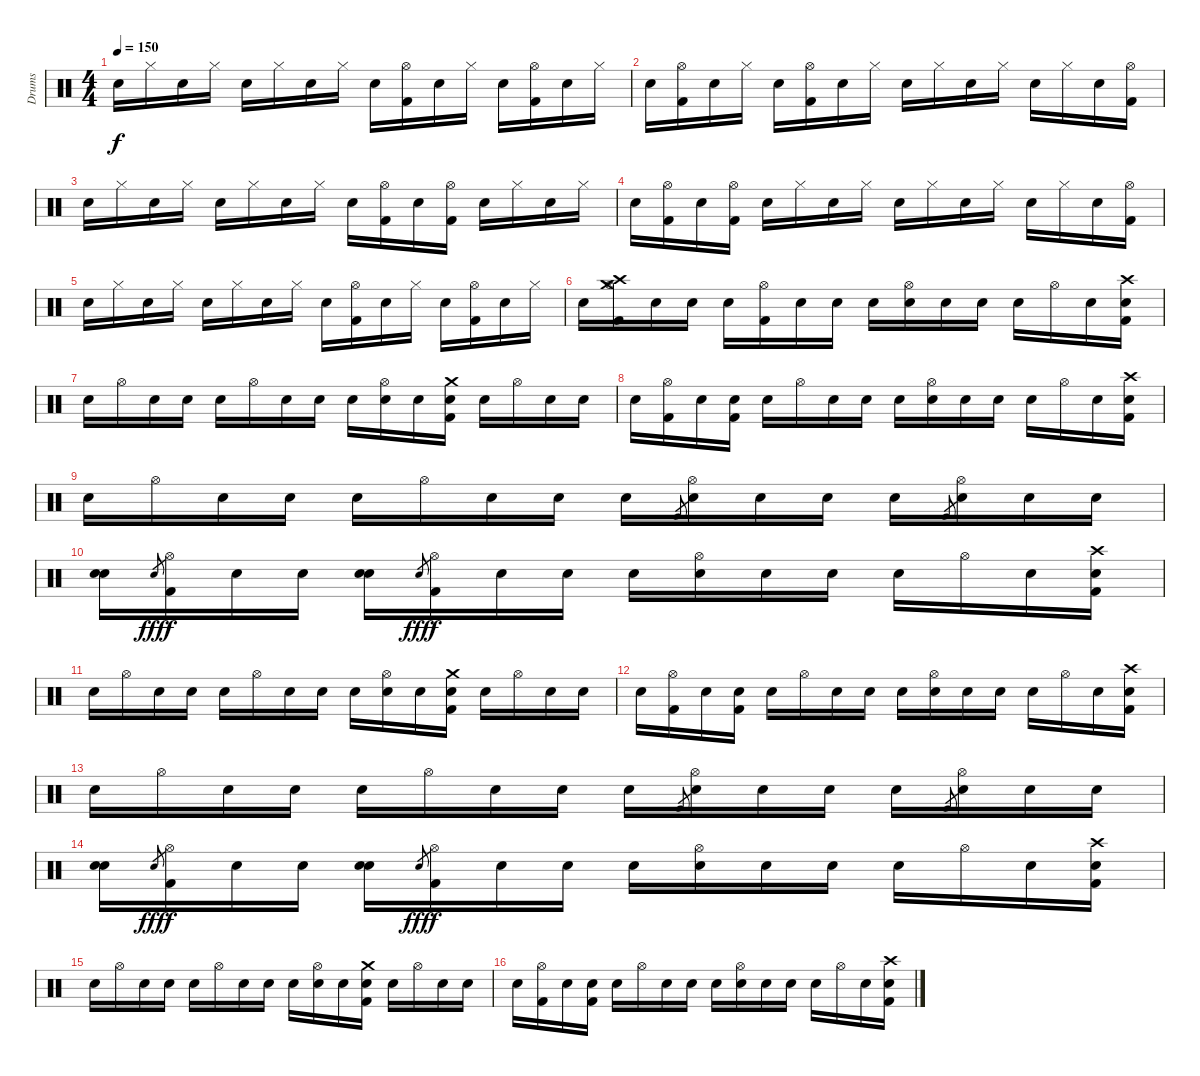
\track ("Drums" "Drums") {instrument percussion}
\staff {score}
\articulation defaults
\ts (4 4)
\tempo 150
\clef neutral
\ks c "Snare (hit)".16{dy f} "Hi-Hat (closed)".16 "Snare (hit)".16 "Hi-Hat (closed)".16 "Snare (hit)".16 "Hi-Hat (closed)".16 "Snare (hit)".16 "Hi-Hat (closed)".16 "Snare (hit)".16
("Hi-Hat (open)" "Kick (hit) 2").16 "Snare (hit)".16 "Hi-Hat (closed)".16 "Snare (hit)".16 ("Hi-Hat (open)" "Kick (hit) 2").16 "Snare (hit)".16 "Hi-Hat (closed)".16 |
"Snare (hit)".16 ("Hi-Hat (open)" "Kick (hit) 2").16 "Snare (hit)".16 "Hi-Hat (closed)".16 "Snare (hit)".16 ("Hi-Hat (open)" "Kick (hit) 2").16 "Snare (hit)".16 "Hi-Hat (closed)".16 "Snare (hit)".16 "Hi-Hat (closed)".16 "Snare (hit)".16 "Hi-Hat (closed)".16 "Snare (hit)".16 "Hi-Hat (closed)".16 "Snare (hit)".16 ("Hi-Hat (open)" "Kick (hit) 2").16 |
"Snare (hit)".16 "Hi-Hat (closed)".16 "Snare (hit)".16 "Hi-Hat (closed)".16 "Snare (hit)".16 "Hi-Hat (closed)".16 "Snare (hit)".16 "Hi-Hat (closed)".16 "Snare (hit)".16 ("Hi-Hat (open)" "Kick (hit) 2").16 "Snare (hit)".16 ("Hi-Hat (open)" "Kick (hit) 2").16 "Snare (hit)".16 "Hi-Hat (closed)".16 "Snare (hit)".16 "Hi-Hat (closed)".16 |
"Snare (hit)".16 ("Hi-Hat (open)" "Kick (hit) 2").16 "Snare (hit)".16 ("Hi-Hat (open)" "Kick (hit) 2").16 "Snare (hit)".16 "Hi-Hat (closed)".16 "Snare (hit)".16 "Hi-Hat (closed)".16 "Snare (hit)".16 "Hi-Hat (closed)".16 "Snare (hit)".16 "Hi-Hat (closed)".16 "Snare (hit)".16 "Hi-Hat (closed)".16 "Snare (hit)".16 ("Hi-Hat (open)" "Kick (hit) 2").16 |
"Snare (hit)".16 "Hi-Hat (closed)".16 "Snare (hit)".16 "Hi-Hat (closed)".16 "Snare (hit)".16 "Hi-Hat (closed)".16 "Snare (hit)".16 "Hi-Hat (closed)".16 "Snare (hit)".16 ("Hi-Hat (open)" "Kick (hit) 2").16 "Snare (hit)".16 "Hi-Hat (closed)".16 "Snare (hit)".16 ("Hi-Hat (open)" "Kick (hit) 2").16 "Snare (hit)".16 "Hi-Hat (closed)".16 |
"Snare (hit)".16 ("Hi-Hat (open)" "Crash medium (hit)" "Crash high (hit)" "Kick (hit) 2").16 "Snare (hit)".16 "Snare (hit)".16 "Snare (hit)".16 ("Hi-Hat (open)" "Kick (hit) 2").16 "Snare (hit)".16 "Snare (hit)".16 "Snare (hit)".16 ("Hi-Hat (open)" "Electric Snare (hit)").16 "Snare (hit)".16 "Snare (hit)".16 "Snare (hit)".16 "Hi-Hat (open)".16 "Snare (hit)".16 ("Snare (hit)" "Crash high (hit)" "Kick (hit) 2").16 |
"Snare (hit)".16 "Hi-Hat (open)".16 "Snare (hit)".16 "Snare (hit)".16 "Snare (hit)".16 "Hi-Hat (open)".16 "Snare (hit)".16 "Snare (hit)".16 "Snare (hit)".16 ("Hi-Hat (open)" "Electric Snare (hit)").16 "Snare (hit)".16 ("Snare (hit)" "Crash medium (hit)" "Kick (hit) 2").16 "Snare (hit)".16 "Hi-Hat (open)".16 "Snare (hit)".16 "Snare (hit)".16 |
"Snare (hit)".16 ("Hi-Hat (open)" "Kick (hit) 2").16 "Snare (hit)".16 ("Snare (hit)" "Kick (hit) 2").16 "Snare (hit)".16 "Hi-Hat (open)".16 "Snare (hit)".16 "Snare (hit)".16 "Snare (hit)".16 ("Hi-Hat (open)" "Electric Snare (hit)").16 "Snare (hit)".16 "Snare (hit)".16 "Snare (hit)".16 "Hi-Hat (open)".16 "Snare (hit)".16 ("Snare (hit)" "Crash high (hit)" "Kick (hit) 2").16 |
"Snare (hit)".16 "Hi-Hat (open)".16 "Snare (hit)".16 "Snare (hit)".16 "Snare (hit)".16 "Hi-Hat (open)".16 "Snare (hit)".16 "Snare (hit)".16 "Snare (hit)".16 "Kick (hit) 2".8{gr} ("Hi-Hat (open)" "Electric Snare (hit)").16 "Snare (hit)".16 "Snare (hit)".16 "Snare (hit)".16 "Kick (hit) 2".8{gr} ("Hi-Hat (open)" "Electric Snare (hit)").16 "Snare (hit)".16 "Snare (hit)".16 |
("Snare (hit)" "Electric Snare (hit)").16 "Electric Snare (hit)".8{gr dy fff} ("Hi-Hat (open)" "Kick (hit) 2").16{dy f} "Snare (hit)".16 "Snare (hit)".16 ("Snare (hit)" "Electric Snare (hit)").16 "Electric Snare (hit)".8{gr dy fff} ("Hi-Hat (open)" "Kick (hit) 2").16{dy f} "Snare (hit)".16 "Snare (hit)".16 "Snare (hit)".16 ("Hi-Hat (open)" "Electric Snare (hit)").16 "Snare (hit)".16 "Snare (hit)".16 "Snare (hit)".16 "Hi-Hat (open)".16 "Snare (hit)".16 ("Snare (hit)" "Crash high (hit)" "Kick (hit) 2").16 |
"Snare (hit)".16 "Hi-Hat (open)".16 "Snare (hit)".16 "Snare (hit)".16 "Snare (hit)".16 "Hi-Hat (open)".16 "Snare (hit)".16 "Snare (hit)".16 "Snare (hit)".16 ("Hi-Hat (open)" "Electric Snare (hit)").16 "Snare (hit)".16 ("Snare (hit)" "Crash medium (hit)" "Kick (hit) 2").16 "Snare (hit)".16 "Hi-Hat (open)".16 "Snare (hit)".16 "Snare (hit)".16 |
"Snare (hit)".16 ("Hi-Hat (open)" "Kick (hit) 2").16 "Snare (hit)".16 ("Snare (hit)" "Kick (hit) 2").16 "Snare (hit)".16 "Hi-Hat (open)".16 "Snare (hit)".16 "Snare (hit)".16 "Snare (hit)".16 ("Hi-Hat (open)" "Electric Snare (hit)").16 "Snare (hit)".16 "Snare (hit)".16 "Snare (hit)".16 "Hi-Hat (open)".16 "Snare (hit)".16 ("Snare (hit)" "Crash high (hit)" "Kick (hit) 2").16 |
"Snare (hit)".16 "Hi-Hat (open)".16 "Snare (hit)".16 "Snare (hit)".16 "Snare (hit)".16 "Hi-Hat (open)".16 "Snare (hit)".16 "Snare (hit)".16 "Snare (hit)".16 "Kick (hit) 2".8{gr} ("Hi-Hat (open)" "Electric Snare (hit)").16 "Snare (hit)".16 "Snare (hit)".16 "Snare (hit)".16 "Kick (hit) 2".8{gr} ("Hi-Hat (open)" "Electric Snare (hit)").16 "Snare (hit)".16 "Snare (hit)".16 |
("Snare (hit)" "Electric Snare (hit)").16 "Electric Snare (hit)".8{gr dy fff} ("Hi-Hat (open)" "Kick (hit) 2").16{dy f} "Snare (hit)".16 "Snare (hit)".16 ("Snare (hit)" "Electric Snare (hit)").16 "Electric Snare (hit)".8{gr dy fff} ("Hi-Hat (open)" "Kick (hit) 2").16{dy f} "Snare (hit)".16 "Snare (hit)".16 "Snare (hit)".16 ("Hi-Hat (open)" "Electric Snare (hit)").16 "Snare (hit)".16 "Snare (hit)".16 "Snare (hit)".16 "Hi-Hat (open)".16 "Snare (hit)".16 ("Snare (hit)" "Crash high (hit)" "Kick (hit) 2").16 |
"Snare (hit)".16 "Hi-Hat (open)".16 "Snare (hit)".16 "Snare (hit)".16 "Snare (hit)".16 "Hi-Hat (open)".16 "Snare (hit)".16 "Snare (hit)".16 "Snare (hit)".16 ("Hi-Hat (open)" "Electric Snare (hit)").16 "Snare (hit)".16 ("Snare (hit)" "Crash medium (hit)" "Kick (hit) 2").16 "Snare (hit)".16 "Hi-Hat (open)".16 "Snare (hit)".16 "Snare (hit)".16 |
"Snare (hit)".16 ("Hi-Hat (open)" "Kick (hit) 2").16 "Snare (hit)".16 ("Snare (hit)" "Kick (hit) 2").16 "Snare (hit)".16 "Hi-Hat (open)".16 "Snare (hit)".16 "Snare (hit)".16 "Snare (hit)".16 ("Hi-Hat (open)" "Electric Snare (hit)").16 "Snare (hit)".16 "Snare (hit)".16 "Snare (hit)".16 "Hi-Hat (open)".16 "Snare (hit)".16 ("Snare (hit)" "Crash high (hit)" "Kick (hit) 2").16
